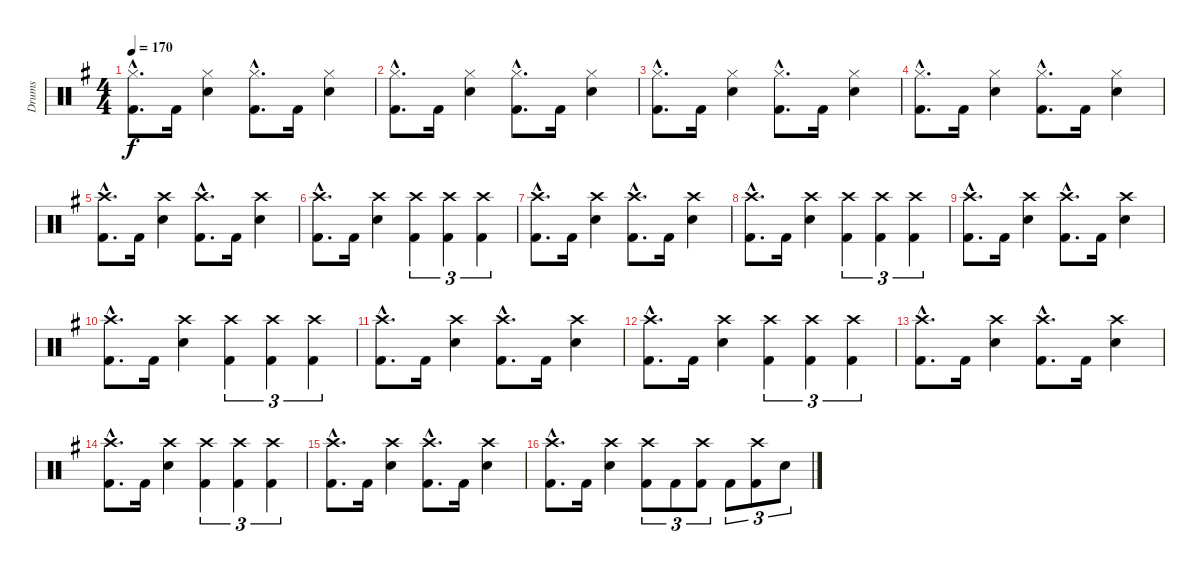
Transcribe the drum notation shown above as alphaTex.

\track ("Drums" "Drums") {instrument percussion}
\staff {score}
\articulation defaults
\ts (4 4)
\tempo 170
\clef neutral
\ks eminor
("Hi-Hat (closed)"{hac} "Kick (hit) 2"{hac}).8{d dy f} "Kick (hit) 2".16 ("Hi-Hat (closed)" "Snare (hit) 2").4 ("Hi-Hat (closed)"{hac} "Kick (hit) 2"{hac}).8{d} "Kick (hit) 2".16 ("Hi-Hat (closed)" "Snare (hit) 2").4 |
("Hi-Hat (closed)"{hac} "Kick (hit) 2"{hac}).8{d} "Kick (hit) 2".16 ("Hi-Hat (closed)" "Snare (hit) 2").4 ("Hi-Hat (closed)"{hac} "Kick (hit) 2"{hac}).8{d} "Kick (hit) 2".16 ("Hi-Hat (closed)" "Snare (hit) 2").4 |
("Hi-Hat (closed)"{hac} "Kick (hit) 2"{hac}).8{d} "Kick (hit) 2".16 ("Hi-Hat (closed)" "Snare (hit) 2").4 ("Hi-Hat (closed)"{hac} "Kick (hit) 2"{hac}).8{d} "Kick (hit) 2".16 ("Hi-Hat (closed)" "Snare (hit) 2").4 |
("Hi-Hat (closed)"{hac} "Kick (hit) 2"{hac}).8{d} "Kick (hit) 2".16 ("Hi-Hat (closed)" "Snare (hit) 2").4 ("Hi-Hat (closed)"{hac} "Kick (hit) 2"{hac}).8{d} "Kick (hit) 2".16 ("Hi-Hat (closed)" "Snare (hit) 2").4 |
("Crash high (hit)"{hac} "Kick (hit) 2"{hac}).8{d} "Kick (hit) 2".16 ("Crash high (hit)" "Snare (hit) 2").4 ("Crash high (hit)"{hac} "Kick (hit) 2"{hac}).8{d} "Kick (hit) 2".16 ("Crash high (hit)" "Snare (hit) 2").4 |
("Crash high (hit)"{hac} "Kick (hit) 2"{hac}).8{d} "Kick (hit) 2".16 ("Crash high (hit)" "Snare (hit) 2").4 ("Crash high (hit)" "Kick (hit) 2").4{tu (3 2)} ("Crash high (hit)" "Kick (hit) 2").4{tu (3 2)} ("Crash high (hit)" "Kick (hit) 2").4{tu (3 2)} |
("Crash high (hit)"{hac} "Kick (hit) 2"{hac}).8{d} "Kick (hit) 2".16 ("Crash high (hit)" "Snare (hit) 2").4 ("Crash high (hit)"{hac} "Kick (hit) 2"{hac}).8{d} "Kick (hit) 2".16 ("Crash high (hit)" "Snare (hit) 2").4 |
("Crash high (hit)"{hac} "Kick (hit) 2"{hac}).8{d} "Kick (hit) 2".16 ("Crash high (hit)" "Snare (hit) 2").4 ("Crash high (hit)" "Kick (hit) 2").4{tu (3 2)} ("Crash high (hit)" "Kick (hit) 2").4{tu (3 2)} ("Crash high (hit)" "Kick (hit) 2").4{tu (3 2)} |
("Crash high (hit)"{hac} "Kick (hit) 2"{hac}).8{d} "Kick (hit) 2".16 ("Crash high (hit)" "Snare (hit) 2").4 ("Crash high (hit)"{hac} "Kick (hit) 2"{hac}).8{d} "Kick (hit) 2".16 ("Crash high (hit)" "Snare (hit) 2").4 |
("Crash high (hit)"{hac} "Kick (hit) 2"{hac}).8{d} "Kick (hit) 2".16 ("Crash high (hit)" "Snare (hit) 2").4 ("Crash high (hit)" "Kick (hit) 2").4{tu (3 2)} ("Crash high (hit)" "Kick (hit) 2").4{tu (3 2)} ("Crash high (hit)" "Kick (hit) 2").4{tu (3 2)} |
("Crash high (hit)"{hac} "Kick (hit) 2"{hac}).8{d} "Kick (hit) 2".16 ("Crash high (hit)" "Snare (hit) 2").4 ("Crash high (hit)"{hac} "Kick (hit) 2"{hac}).8{d} "Kick (hit) 2".16 ("Crash high (hit)" "Snare (hit) 2").4 |
("Crash high (hit)"{hac} "Kick (hit) 2"{hac}).8{d} "Kick (hit) 2".16 ("Crash high (hit)" "Snare (hit) 2").4 ("Crash high (hit)" "Kick (hit) 2").4{tu (3 2)} ("Crash high (hit)" "Kick (hit) 2").4{tu (3 2)} ("Crash high (hit)" "Kick (hit) 2").4{tu (3 2)} |
("Crash high (hit)"{hac} "Kick (hit) 2"{hac}).8{d} "Kick (hit) 2".16 ("Crash high (hit)" "Snare (hit) 2").4 ("Crash high (hit)"{hac} "Kick (hit) 2"{hac}).8{d} "Kick (hit) 2".16 ("Crash high (hit)" "Snare (hit) 2").4 |
("Crash high (hit)"{hac} "Kick (hit) 2"{hac}).8{d} "Kick (hit) 2".16 ("Crash high (hit)" "Snare (hit) 2").4 ("Crash high (hit)" "Kick (hit) 2").4{tu (3 2)} ("Crash high (hit)" "Kick (hit) 2").4{tu (3 2)} ("Crash high (hit)" "Kick (hit) 2").4{tu (3 2)} |
("Crash high (hit)"{hac} "Kick (hit) 2"{hac}).8{d} "Kick (hit) 2".16 ("Crash high (hit)" "Snare (hit) 2").4 ("Crash high (hit)"{hac} "Kick (hit) 2"{hac}).8{d} "Kick (hit) 2".16 ("Crash high (hit)" "Snare (hit) 2").4 |
("Crash high (hit)"{hac} "Kick (hit) 2"{hac}).8{d} "Kick (hit) 2".16 ("Crash high (hit)" "Snare (hit) 2").4 ("Crash high (hit)" "Kick (hit) 2").8{tu (3 2)} "Kick (hit) 2".8{tu (3 2)} ("Crash high (hit)" "Kick (hit) 2").8{tu (3 2)} "Kick (hit) 2".8{tu (3 2)} ("Crash high (hit)" "Kick (hit) 2").8{tu (3 2)} "Snare (hit) 2".8{tu (3 2)}
